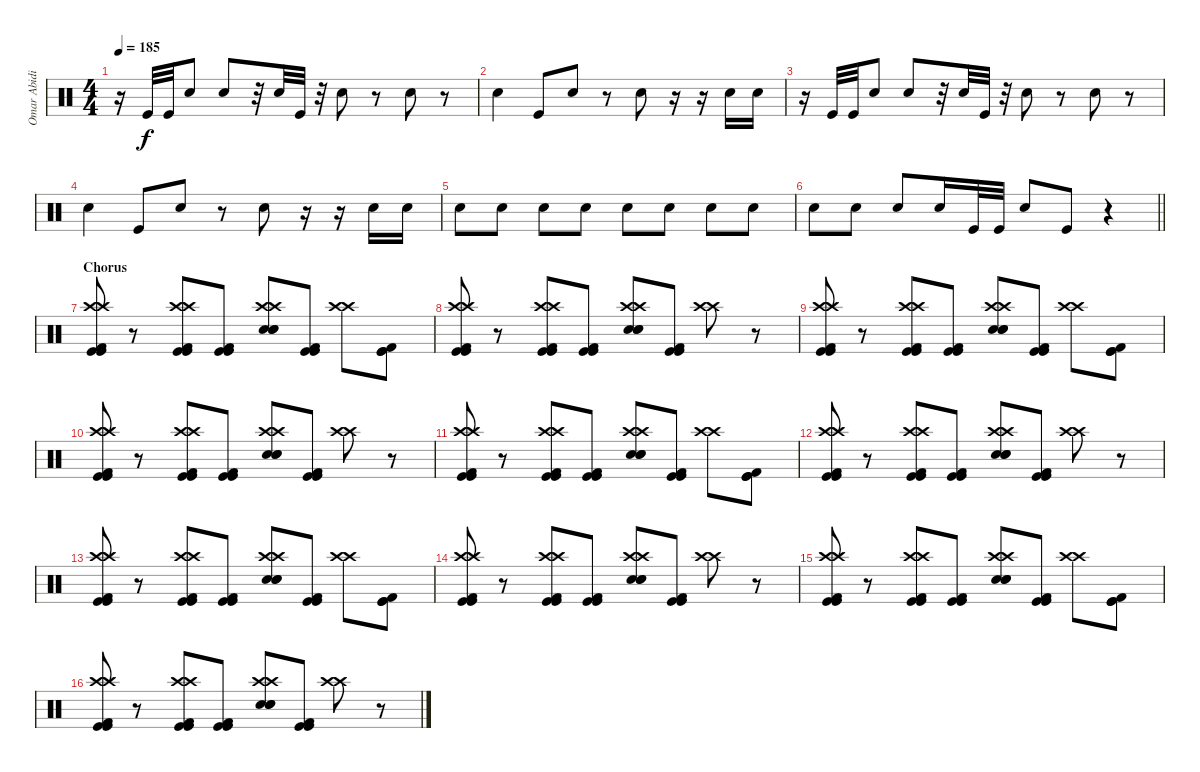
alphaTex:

\track ("Omar Abidi" "Omar Abidi") {instrument percussion}
\staff {score}
\articulation defaults
\ts (4 4)
\tempo 185
\clef neutral
\ks c
r.16{dy f volume 1} "Kick (hit)".32 "Kick (hit)".32 "Snare (hit) 2".8 "Snare (hit) 2".8 r.32 "Snare (hit) 2".32 "Kick (hit)".32 r.32 "Snare (hit) 2".8 r.8 "Snare (hit) 2".8 r.8 |
"Snare (hit) 2".4 "Kick (hit)".8 "Snare (hit) 2".8 r.8 "Snare (hit) 2".8 r.16 r.16 "Snare (hit) 2".16 "Snare (hit) 2".16 |
r.16{volume 1} "Kick (hit)".32 "Kick (hit)".32 "Snare (hit) 2".8 "Snare (hit) 2".8 r.32 "Snare (hit) 2".32 "Kick (hit)".32 r.32 "Snare (hit) 2".8 r.8 "Snare (hit) 2".8 r.8 |
"Snare (hit) 2".4 "Kick (hit)".8 "Snare (hit) 2".8 r.8 "Snare (hit) 2".8 r.16 r.16 "Snare (hit) 2".16 "Snare (hit) 2".16 |
"Snare (hit) 2".8{volume 4} "Snare (hit) 2".8{volume 16} "Snare (hit) 2".8 "Snare (hit) 2".8 "Snare (hit) 2".8 "Snare (hit) 2".8 "Snare (hit) 2".8 "Snare (hit) 2".8 |
\barLineRight lightlight "Snare (hit) 2".8 "Snare (hit) 2".8 "Snare (hit) 2".8 "Snare (hit) 2".16 "Kick (hit)".32 "Kick (hit)".32 "Snare (hit) 2".8 "Kick (hit)".8
r.4 |
\section ("" "Chorus")
("Crash high (hit)" "Crash high (hit)" "Kick (hit) 2" "Kick (hit)" "Kick (hit)").8 r.8 ("Crash high (hit)" "Crash high (hit)" "Kick (hit) 2" "Kick (hit)" "Kick (hit)").8 ("Kick (hit) 2" "Kick (hit)" "Kick (hit)").8 ("Crash high (hit)" "Crash high (hit)" "Snare (hit) 2" "Electric Snare (hit)" "Snare (hit) 2").8 ("Kick (hit) 2" "Kick (hit)" "Kick (hit)").8 ("Crash high (hit)" "Crash high (hit)").8 ("Kick (hit) 2" "Kick (hit)" "Kick (hit)").8 |
("Crash high (hit)" "Crash high (hit)" "Kick (hit) 2" "Kick (hit)" "Kick (hit)").8 r.8 ("Crash high (hit)" "Crash high (hit)" "Kick (hit) 2" "Kick (hit)" "Kick (hit)").8 ("Kick (hit) 2" "Kick (hit)" "Kick (hit)").8 ("Crash high (hit)" "Crash high (hit)" "Snare (hit) 2" "Snare (hit) 2" "Electric Snare (hit)").8 ("Kick (hit) 2" "Kick (hit)" "Kick (hit)").8 ("Crash high (hit)" "Crash high (hit)").8 r.8 |
("Crash high (hit)" "Crash high (hit)" "Kick (hit) 2" "Kick (hit)" "Kick (hit)").8 r.8 ("Crash high (hit)" "Crash high (hit)" "Kick (hit) 2" "Kick (hit)" "Kick (hit)").8 ("Kick (hit) 2" "Kick (hit)" "Kick (hit)").8 ("Crash high (hit)" "Crash high (hit)" "Snare (hit) 2" "Electric Snare (hit)" "Snare (hit) 2").8 ("Kick (hit) 2" "Kick (hit)" "Kick (hit)").8 ("Crash high (hit)" "Crash high (hit)").8 ("Kick (hit) 2" "Kick (hit)" "Kick (hit)").8 |
("Crash high (hit)" "Crash high (hit)" "Kick (hit) 2" "Kick (hit)" "Kick (hit)").8 r.8 ("Crash high (hit)" "Crash high (hit)" "Kick (hit) 2" "Kick (hit)" "Kick (hit)").8 ("Kick (hit) 2" "Kick (hit)" "Kick (hit)").8 ("Crash high (hit)" "Crash high (hit)" "Snare (hit) 2" "Snare (hit) 2" "Electric Snare (hit)").8 ("Kick (hit) 2" "Kick (hit)" "Kick (hit)").8 ("Crash high (hit)" "Crash high (hit)").8 r.8 |
("Crash high (hit)" "Crash high (hit)" "Kick (hit) 2" "Kick (hit)" "Kick (hit)").8 r.8 ("Crash high (hit)" "Crash high (hit)" "Kick (hit) 2" "Kick (hit)" "Kick (hit)").8 ("Kick (hit) 2" "Kick (hit)" "Kick (hit)").8 ("Crash high (hit)" "Crash high (hit)" "Snare (hit) 2" "Electric Snare (hit)" "Snare (hit) 2").8 ("Kick (hit) 2" "Kick (hit)" "Kick (hit)").8 ("Crash high (hit)" "Crash high (hit)").8 ("Kick (hit) 2" "Kick (hit)" "Kick (hit)").8 |
("Crash high (hit)" "Crash high (hit)" "Kick (hit) 2" "Kick (hit)" "Kick (hit)").8 r.8 ("Crash high (hit)" "Crash high (hit)" "Kick (hit) 2" "Kick (hit)" "Kick (hit)").8 ("Kick (hit) 2" "Kick (hit)" "Kick (hit)").8 ("Crash high (hit)" "Crash high (hit)" "Snare (hit) 2" "Snare (hit) 2" "Electric Snare (hit)").8 ("Kick (hit) 2" "Kick (hit)" "Kick (hit)").8 ("Crash high (hit)" "Crash high (hit)").8 r.8 |
("Crash high (hit)" "Crash high (hit)" "Kick (hit) 2" "Kick (hit)" "Kick (hit)").8 r.8 ("Crash high (hit)" "Crash high (hit)" "Kick (hit) 2" "Kick (hit)" "Kick (hit)").8 ("Kick (hit) 2" "Kick (hit)" "Kick (hit)").8 ("Crash high (hit)" "Crash high (hit)" "Snare (hit) 2" "Electric Snare (hit)" "Snare (hit) 2").8 ("Kick (hit) 2" "Kick (hit)" "Kick (hit)").8 ("Crash high (hit)" "Crash high (hit)").8 ("Kick (hit) 2" "Kick (hit)" "Kick (hit)").8 |
("Crash high (hit)" "Crash high (hit)" "Kick (hit) 2" "Kick (hit)" "Kick (hit)").8 r.8 ("Crash high (hit)" "Crash high (hit)" "Kick (hit) 2" "Kick (hit)" "Kick (hit)").8 ("Kick (hit) 2" "Kick (hit)" "Kick (hit)").8 ("Crash high (hit)" "Crash high (hit)" "Snare (hit) 2" "Snare (hit) 2" "Electric Snare (hit)").8 ("Kick (hit) 2" "Kick (hit)" "Kick (hit)").8 ("Crash high (hit)" "Crash high (hit)").8 r.8 |
("Crash high (hit)" "Crash high (hit)" "Kick (hit) 2" "Kick (hit)" "Kick (hit)").8 r.8 ("Crash high (hit)" "Crash high (hit)" "Kick (hit) 2" "Kick (hit)" "Kick (hit)").8 ("Kick (hit) 2" "Kick (hit)" "Kick (hit)").8 ("Crash high (hit)" "Crash high (hit)" "Snare (hit) 2" "Electric Snare (hit)" "Snare (hit) 2").8 ("Kick (hit) 2" "Kick (hit)" "Kick (hit)").8 ("Crash high (hit)" "Crash high (hit)").8 ("Kick (hit) 2" "Kick (hit)" "Kick (hit)").8 |
("Crash high (hit)" "Crash high (hit)" "Kick (hit) 2" "Kick (hit)" "Kick (hit)").8 r.8 ("Crash high (hit)" "Crash high (hit)" "Kick (hit) 2" "Kick (hit)" "Kick (hit)").8 ("Kick (hit) 2" "Kick (hit)" "Kick (hit)").8 ("Crash high (hit)" "Crash high (hit)" "Snare (hit) 2" "Snare (hit) 2" "Electric Snare (hit)").8 ("Kick (hit) 2" "Kick (hit)" "Kick (hit)").8 ("Crash high (hit)" "Crash high (hit)").8 r.8
